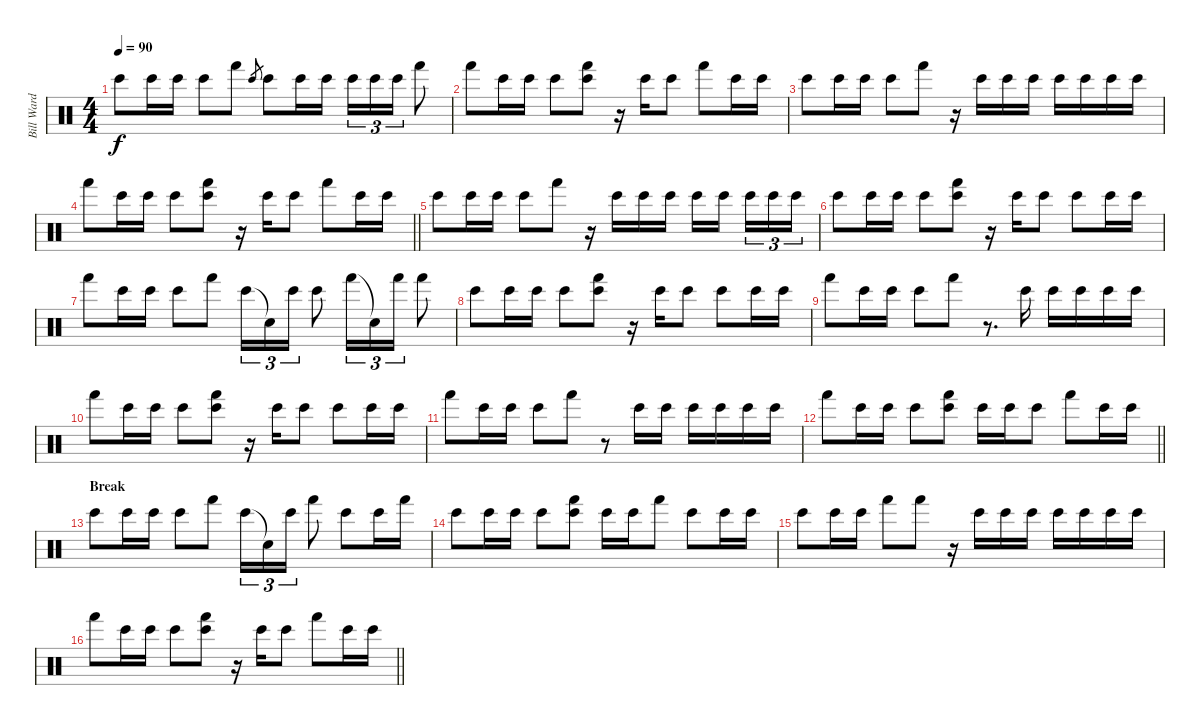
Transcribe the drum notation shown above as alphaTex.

\track ("Bill Ward" "Bill Ward") {instrument percussion}
\staff {score}
\articulation defaults
\ts (4 4)
\tempo 90
\clef neutral
\ks c "Bongo High (hit)".8{dy f} "Bongo High (hit)".16 "Bongo High (hit)".16 "Bongo High (hit)".8 "Hand (hit)".8 "Bongo High (hit)".8{gr} "Bongo High (hit)".8 "Bongo High (hit)".16 "Bongo High (hit)".16 "Bongo High (hit)".16{tu (3 2)} "Bongo High (hit)".16{tu (3 2)} "Bongo High (hit)".16{tu (3 2)} "Hand (hit)".8
|
"Hand (hit)".8 "Bongo High (hit)".16 "Bongo High (hit)".16 "Bongo High (hit)".8 ("Bongo High (hit)" "Hand (hit)").8 r.16 "Bongo High (hit)".16 "Bongo High (hit)".8 "Hand (hit)".8 "Bongo High (hit)".16 "Bongo High (hit)".16 |
"Bongo High (hit)".8 "Bongo High (hit)".16 "Bongo High (hit)".16 "Bongo High (hit)".8 "Hand (hit)".8 r.16 "Bongo High (hit)".16 "Bongo High (hit)".16 "Bongo High (hit)".16 "Bongo High (hit)".16 "Bongo High (hit)".16 "Bongo High (hit)".16 "Bongo High (hit)".16 |
\barLineRight lightlight "Hand (hit)".8 "Bongo High (hit)".16 "Bongo High (hit)".16 "Bongo High (hit)".8
("Bongo High (hit)" "Hand (hit)").8 r.16 "Bongo High (hit)".16 "Bongo High (hit)".8 "Hand (hit)".8 "Bongo High (hit)".16 "Bongo High (hit)".16 |
"Bongo High (hit)".8 "Bongo High (hit)".16 "Bongo High (hit)".16 "Bongo High (hit)".8 "Hand (hit)".8 r.16 "Bongo High (hit)".16 "Bongo High (hit)".16 "Bongo High (hit)".16 "Bongo High (hit)".16 "Bongo High (hit)".16{beam splitsecondary} "Bongo High (hit)".16{tu (3 2)} "Bongo High (hit)".16{tu (3 2)} "Bongo High (hit)".16{tu (3 2)} |
"Bongo High (hit)".8 "Bongo High (hit)".16 "Bongo High (hit)".16 "Bongo High (hit)".8 ("Bongo High (hit)" "Hand (hit)").8 r.16 "Bongo High (hit)".16 "Bongo High (hit)".8 "Bongo High (hit)".8 "Bongo High (hit)".16 "Bongo High (hit)".16 |
"Hand (hit)".8 "Bongo High (hit)".16 "Bongo High (hit)".16 "Bongo High (hit)".8 "Hand (hit)".8 "Bongo High (hit)".16{tu (3 2)} "Snare (hit)"{t}.16{tu (3 2)} "Bongo High (hit)".16{tu (3 2)} "Bongo High (hit)".8 "Hand (hit)".16{tu (3 2)} "Snare (hit)"{t}.16{tu (3 2)} "Hand (hit)".16{tu (3 2)} "Hand (hit)".8 |
"Bongo High (hit)".8 "Bongo High (hit)".16 "Bongo High (hit)".16 "Bongo High (hit)".8 ("Bongo High (hit)" "Hand (hit)").8 r.16 "Bongo High (hit)".16 "Bongo High (hit)".8 "Bongo High (hit)".8 "Bongo High (hit)".16 "Bongo High (hit)".16 |
"Hand (hit)".8 "Bongo High (hit)".16 "Bongo High (hit)".16 "Bongo High (hit)".8 "Hand (hit)".8 r.8{d} "Bongo High (hit)".16 "Bongo High (hit)".16 "Bongo High (hit)".16 "Bongo High (hit)".16 "Bongo High (hit)".16 |
"Hand (hit)".8 "Bongo High (hit)".16 "Bongo High (hit)".16 "Bongo High (hit)".8 ("Bongo High (hit)" "Hand (hit)").8 r.16 "Bongo High (hit)".16 "Bongo High (hit)".8 "Bongo High (hit)".8 "Bongo High (hit)".16 "Bongo High (hit)".16 |
"Hand (hit)".8 "Bongo High (hit)".16 "Bongo High (hit)".16 "Bongo High (hit)".8 "Hand (hit)".8 r.8 "Bongo High (hit)".16 "Bongo High (hit)".16 "Bongo High (hit)".16 "Bongo High (hit)".16 "Bongo High (hit)".16 "Bongo High (hit)".16 |
\barLineRight lightlight "Hand (hit)".8 "Bongo High (hit)".16 "Bongo High (hit)".16 "Bongo High (hit)".8
("Bongo High (hit)" "Hand (hit)").8 "Bongo High (hit)".16 "Bongo High (hit)".16 "Bongo High (hit)".8 "Hand (hit)".8 "Bongo High (hit)".16 "Bongo High (hit)".16 |
\section ("" "Break")
"Bongo High (hit)".8 "Bongo High (hit)".16 "Bongo High (hit)".16 "Bongo High (hit)".8 "Hand (hit)".8 "Bongo High (hit)".16{tu (3 2)} "Snare (hit)"{t}.16{tu (3 2)} "Bongo High (hit)".16{tu (3 2)} "Hand (hit)".8 "Bongo High (hit)".8 "Bongo High (hit)".16 "Hand (hit)".16 |
"Bongo High (hit)".8 "Bongo High (hit)".16 "Bongo High (hit)".16 "Bongo High (hit)".8 ("Bongo High (hit)" "Hand (hit)").8 "Bongo High (hit)".16 "Bongo High (hit)".16 "Hand (hit)".8 "Bongo High (hit)".8 "Bongo High (hit)".16 "Bongo High (hit)".16 |
"Bongo High (hit)".8 "Bongo High (hit)".16 "Bongo High (hit)".16 "Hand (hit)".8 "Hand (hit)".8 r.16 "Bongo High (hit)".16 "Bongo High (hit)".16 "Bongo High (hit)".16 "Bongo High (hit)".16 "Bongo High (hit)".16 "Bongo High (hit)".16 "Bongo High (hit)".16 |
\barLineRight lightlight "Hand (hit)".8 "Bongo High (hit)".16 "Bongo High (hit)".16 "Bongo High (hit)".8
("Bongo High (hit)" "Hand (hit)").8 r.16 "Bongo High (hit)".16 "Bongo High (hit)".8 "Hand (hit)".8 "Bongo High (hit)".16 "Bongo High (hit)".16
